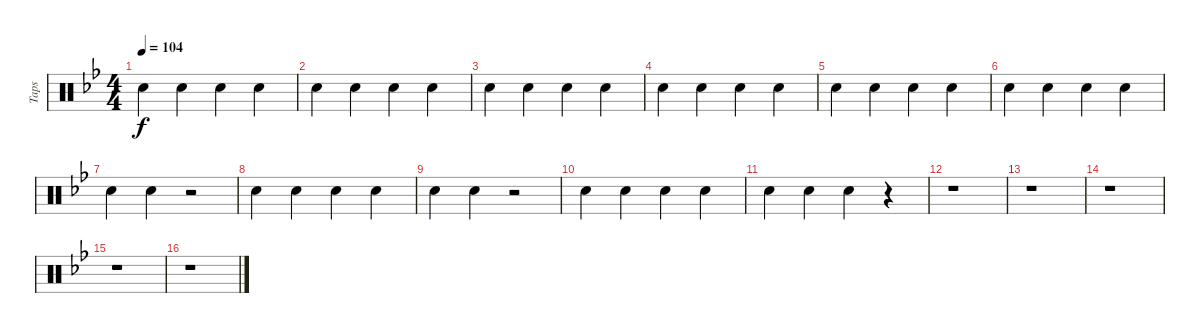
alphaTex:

\track ("Taps" "Taps") {instrument percussion}
\staff {score}
\articulation defaults
\ts (4 4)
\tempo 104
\clef neutral
\ks bb "Hand Clap (hit)".4{dy f} "Hand Clap (hit)".4 "Hand Clap (hit)".4 "Hand Clap (hit)".4
|
"Hand Clap (hit)".4 "Hand Clap (hit)".4 "Hand Clap (hit)".4 "Hand Clap (hit)".4 |
"Hand Clap (hit)".4 "Hand Clap (hit)".4 "Hand Clap (hit)".4 "Hand Clap (hit)".4 |
"Hand Clap (hit)".4 "Hand Clap (hit)".4 "Hand Clap (hit)".4 "Hand Clap (hit)".4 |
"Hand Clap (hit)".4 "Hand Clap (hit)".4 "Hand Clap (hit)".4 "Hand Clap (hit)".4 |
"Hand Clap (hit)".4 "Hand Clap (hit)".4 "Hand Clap (hit)".4 "Hand Clap (hit)".4 |
"Hand Clap (hit)".4 "Hand Clap (hit)".4 r.2 |
"Hand Clap (hit)".4 "Hand Clap (hit)".4 "Hand Clap (hit)".4 "Hand Clap (hit)".4 |
"Hand Clap (hit)".4 "Hand Clap (hit)".4 r.2 |
"Hand Clap (hit)".4 "Hand Clap (hit)".4 "Hand Clap (hit)".4 "Hand Clap (hit)".4 |
"Hand Clap (hit)".4 "Hand Clap (hit)".4 "Hand Clap (hit)".4 r.4 |
r.1 |
r.1 |
r.1 |
r.1 |
r.1
